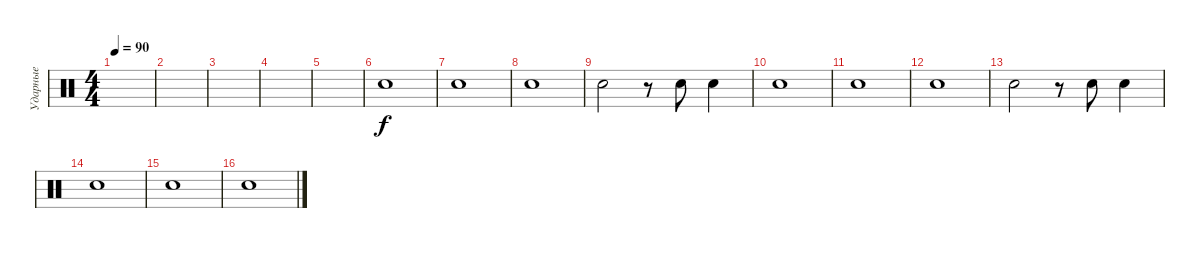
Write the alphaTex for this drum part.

\track ("Ударные" "Ударные") {instrument percussion}
\staff {score}
\articulation defaults
\ts (4 4)
\tempo 90
\clef neutral
\ks c
|
|
|
|
|
"Electric Snare (hit)".1 |
"Electric Snare (hit)".1 |
"Electric Snare (hit)".1 |
"Electric Snare (hit)".2 r.8 "Electric Snare (hit)".8 "Electric Snare (hit)".4 |
"Electric Snare (hit)".1 |
"Electric Snare (hit)".1 |
"Electric Snare (hit)".1 |
"Electric Snare (hit)".2 r.8 "Electric Snare (hit)".8 "Electric Snare (hit)".4 |
"Electric Snare (hit)".1 |
"Electric Snare (hit)".1 |
"Electric Snare (hit)".1
